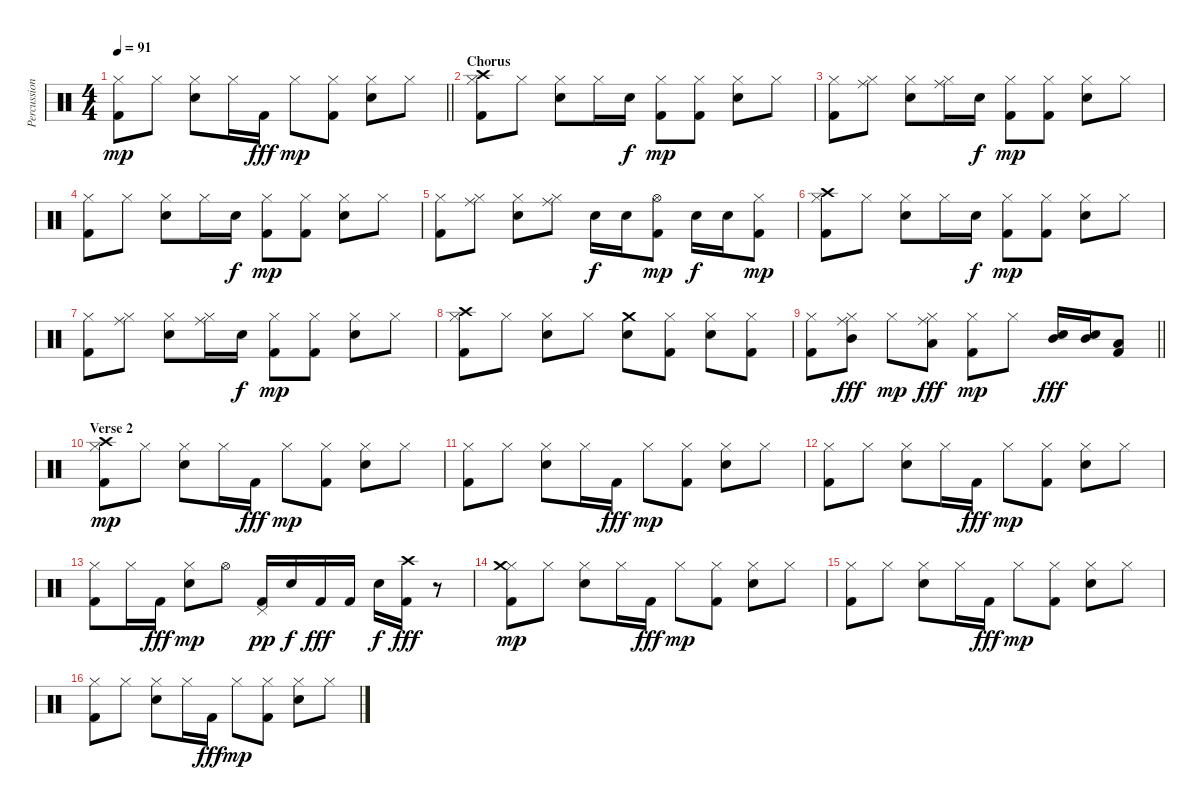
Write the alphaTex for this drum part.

\track ("Percussion" "Percussion") {instrument percussion}
\staff {score}
\articulation defaults
\ts (4 4)
\tempo 91
\clef neutral
\barLineRight lightlight
\ks c
("Kick (hit) 2" "Hi-Hat (closed)").8{dy mp} "Hi-Hat (closed)".8 ("Electric Snare (hit)" "Hi-Hat (closed)").8 "Hi-Hat (closed)".16 "Kick (hit) 2".16{dy fff} "Hi-Hat (closed)".8{dy mp} ("Kick (hit) 2" "Hi-Hat (closed)").8 ("Electric Snare (hit)" "Hi-Hat (closed)").8 "Hi-Hat (closed)".8 |
\section ("" "Chorus")
("Kick (hit) 2" "Hi-Hat (closed)" "Crash high (hit)").8 "Hi-Hat (closed)".8 ("Electric Snare (hit)" "Hi-Hat (closed)").8 "Hi-Hat (closed)".16 "Electric Snare (hit)".16{dy f} ("Kick (hit) 2" "Hi-Hat (closed)").8{dy mp} ("Kick (hit) 2" "Hi-Hat (closed)").8 ("Electric Snare (hit)" "Hi-Hat (closed)").8 "Hi-Hat (closed)".8 |
("Kick (hit) 2" "Hi-Hat (closed)").8 ("Ride (middle)" "Hi-Hat (closed)").8 ("Electric Snare (hit)" "Hi-Hat (closed)").8 ("Ride (middle)" "Hi-Hat (closed)").16 "Electric Snare (hit)".16{dy f} ("Kick (hit) 2" "Hi-Hat (closed)").8{dy mp} ("Kick (hit) 2" "Hi-Hat (closed)").8 ("Electric Snare (hit)" "Hi-Hat (closed)").8 "Hi-Hat (closed)".8 |
("Kick (hit) 2" "Hi-Hat (closed)").8 "Hi-Hat (closed)".8 ("Electric Snare (hit)" "Hi-Hat (closed)").8 "Hi-Hat (closed)".16 "Electric Snare (hit)".16{dy f} ("Kick (hit) 2" "Hi-Hat (closed)").8{dy mp} ("Kick (hit) 2" "Hi-Hat (closed)").8 ("Electric Snare (hit)" "Hi-Hat (closed)").8 "Hi-Hat (closed)".8 |
("Kick (hit) 2" "Hi-Hat (closed)").8 ("Ride (middle)" "Hi-Hat (closed)").8 ("Electric Snare (hit)" "Hi-Hat (closed)").8 ("Ride (middle)" "Hi-Hat (closed)").8 "Electric Snare (hit)".16{dy f} "Electric Snare (hit)".16 ("Kick (hit) 2" "Hi-Hat (open)").8{dy mp} "Electric Snare (hit)".16{dy f} "Electric Snare (hit)".16 ("Kick (hit) 2" "Hi-Hat (closed)").8{dy mp} |
("Kick (hit) 2" "Hi-Hat (closed)" "Crash high (hit)").8 "Hi-Hat (closed)".8 ("Electric Snare (hit)" "Hi-Hat (closed)").8 "Hi-Hat (closed)".16 "Electric Snare (hit)".16{dy f} ("Kick (hit) 2" "Hi-Hat (closed)").8{dy mp} ("Kick (hit) 2" "Hi-Hat (closed)").8 ("Electric Snare (hit)" "Hi-Hat (closed)").8 "Hi-Hat (closed)".8 |
("Kick (hit) 2" "Hi-Hat (closed)").8 ("Ride (middle)" "Hi-Hat (closed)").8 ("Electric Snare (hit)" "Hi-Hat (closed)").8 ("Ride (middle)" "Hi-Hat (closed)").16 "Electric Snare (hit)".16{dy f} ("Kick (hit) 2" "Hi-Hat (closed)").8{dy mp} ("Kick (hit) 2" "Hi-Hat (closed)").8 ("Electric Snare (hit)" "Hi-Hat (closed)").8 "Hi-Hat (closed)".8 |
("Kick (hit) 2" "Hi-Hat (closed)" "Crash high (hit)").8 "Hi-Hat (closed)".8 ("Electric Snare (hit)" "Hi-Hat (closed)").8 "Hi-Hat (closed)".8 ("Electric Snare (hit)" "Crash medium (hit)").8 ("Kick (hit) 2" "Hi-Hat (closed)").8 ("Electric Snare (hit)" "Hi-Hat (closed)").8 ("Kick (hit) 2" "Hi-Hat (closed)").8 |
\barLineRight lightlight
("Kick (hit) 2" "Hi-Hat (closed)").8 ("Ride (middle)" "Hi-Hat (closed)" "Mid Tom (hit)").8{dy fff} "Hi-Hat (closed)".8{dy mp} ("Ride (middle)" "Hi-Hat (closed)" "Low Tom (hit)").8{dy fff} ("Kick (hit) 2" "Hi-Hat (closed)").8{dy mp} "Hi-Hat (closed)".8 ("Electric Snare (hit)" "Mid Tom (hit)").16{dy fff} ("Electric Snare (hit)" "Mid Tom (hit)").16 ("Kick (hit) 2" "Low Tom (hit)").8 |
\section ("" "Verse 2")
("Kick (hit) 2" "Hi-Hat (closed)" "Crash high (hit)").8{dy mp} "Hi-Hat (closed)".8 ("Electric Snare (hit)" "Hi-Hat (closed)").8 "Hi-Hat (closed)".16 "Kick (hit) 2".16{dy fff} "Hi-Hat (closed)".8{dy mp} ("Kick (hit) 2" "Hi-Hat (closed)").8 ("Electric Snare (hit)" "Hi-Hat (closed)").8 "Hi-Hat (closed)".8 |
("Kick (hit) 2" "Hi-Hat (closed)").8 "Hi-Hat (closed)".8 ("Electric Snare (hit)" "Hi-Hat (closed)").8 "Hi-Hat (closed)".16 "Kick (hit) 2".16{dy fff} "Hi-Hat (closed)".8{dy mp} ("Kick (hit) 2" "Hi-Hat (closed)").8 ("Electric Snare (hit)" "Hi-Hat (closed)").8 "Hi-Hat (closed)".8 |
("Kick (hit) 2" "Hi-Hat (closed)").8 "Hi-Hat (closed)".8 ("Electric Snare (hit)" "Hi-Hat (closed)").8 "Hi-Hat (closed)".16 "Kick (hit) 2".16{dy fff} "Hi-Hat (closed)".8{dy mp} ("Kick (hit) 2" "Hi-Hat (closed)").8 ("Electric Snare (hit)" "Hi-Hat (closed)").8 "Hi-Hat (closed)".8 |
("Kick (hit) 2" "Hi-Hat (closed)").8 "Hi-Hat (closed)".16 "Kick (hit) 2".16{dy fff} ("Electric Snare (hit)" "Hi-Hat (closed)").8{dy mp} "Hi-Hat (open)".8 ("Kick (hit) 2" "Pedal Hi-Hat (hit)").16{dy pp} "Electric Snare (hit)".16{dy f} "Kick (hit) 2".16{dy fff} "Kick (hit) 2".16 "Electric Snare (hit)".16{dy f} ("Kick (hit) 2" "Crash high (hit)").16{dy fff} r.8 |
("Kick (hit) 2" "Hi-Hat (closed)" "Crash medium (hit)").8{dy mp} "Hi-Hat (closed)".8 ("Electric Snare (hit)" "Hi-Hat (closed)").8 "Hi-Hat (closed)".16 "Kick (hit) 2".16{dy fff} "Hi-Hat (closed)".8{dy mp} ("Kick (hit) 2" "Hi-Hat (closed)").8 ("Electric Snare (hit)" "Hi-Hat (closed)").8 "Hi-Hat (closed)".8 |
("Kick (hit) 2" "Hi-Hat (closed)").8 "Hi-Hat (closed)".8 ("Electric Snare (hit)" "Hi-Hat (closed)").8 "Hi-Hat (closed)".16 "Kick (hit) 2".16{dy fff} "Hi-Hat (closed)".8{dy mp} ("Kick (hit) 2" "Hi-Hat (closed)").8 ("Electric Snare (hit)" "Hi-Hat (closed)").8 "Hi-Hat (closed)".8 |
("Kick (hit) 2" "Hi-Hat (closed)").8 "Hi-Hat (closed)".8 ("Electric Snare (hit)" "Hi-Hat (closed)").8 "Hi-Hat (closed)".16 "Kick (hit) 2".16{dy fff} "Hi-Hat (closed)".8{dy mp} ("Kick (hit) 2" "Hi-Hat (closed)").8 ("Electric Snare (hit)" "Hi-Hat (closed)").8 "Hi-Hat (closed)".8
